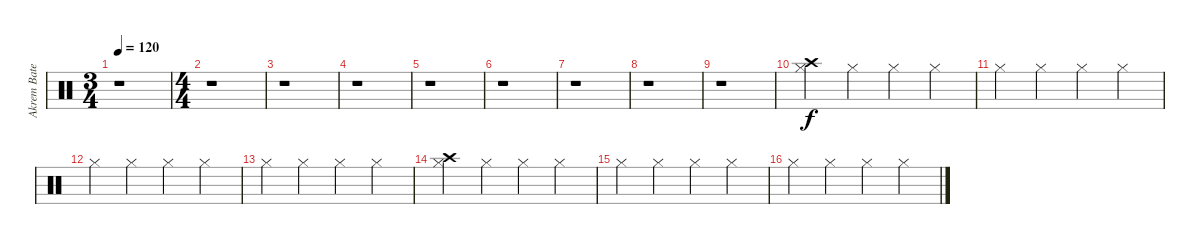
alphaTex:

\track ("Akrem Baterie" "Akrem Bate") {instrument percussion}
\staff {score}
\articulation defaults
\ts (3 4)
\tempo 120
\clef neutral
\ks c
r.1{dy f} |
\ts (4 4)
r.1 |
r.1 |
r.1 |
r.1 |
r.1 |
r.1 |
r.1 |
r.1 |
("Crash high (hit)" "Hi-Hat (closed)").4 "Hi-Hat (closed)".4 "Hi-Hat (closed)".4 "Hi-Hat (closed)".4 |
"Hi-Hat (closed)".4 "Hi-Hat (closed)".4 "Hi-Hat (closed)".4 "Hi-Hat (closed)".4 |
"Hi-Hat (closed)".4 "Hi-Hat (closed)".4 "Hi-Hat (closed)".4 "Hi-Hat (closed)".4 |
"Hi-Hat (closed)".4 "Hi-Hat (closed)".4 "Hi-Hat (closed)".4 "Hi-Hat (closed)".4 |
("Crash high (hit)" "Hi-Hat (closed)").4 "Hi-Hat (closed)".4 "Hi-Hat (closed)".4 "Hi-Hat (closed)".4 |
"Hi-Hat (closed)".4 "Hi-Hat (closed)".4 "Hi-Hat (closed)".4 "Hi-Hat (closed)".4 |
"Hi-Hat (closed)".4 "Hi-Hat (closed)".4 "Hi-Hat (closed)".4 "Hi-Hat (closed)".4
